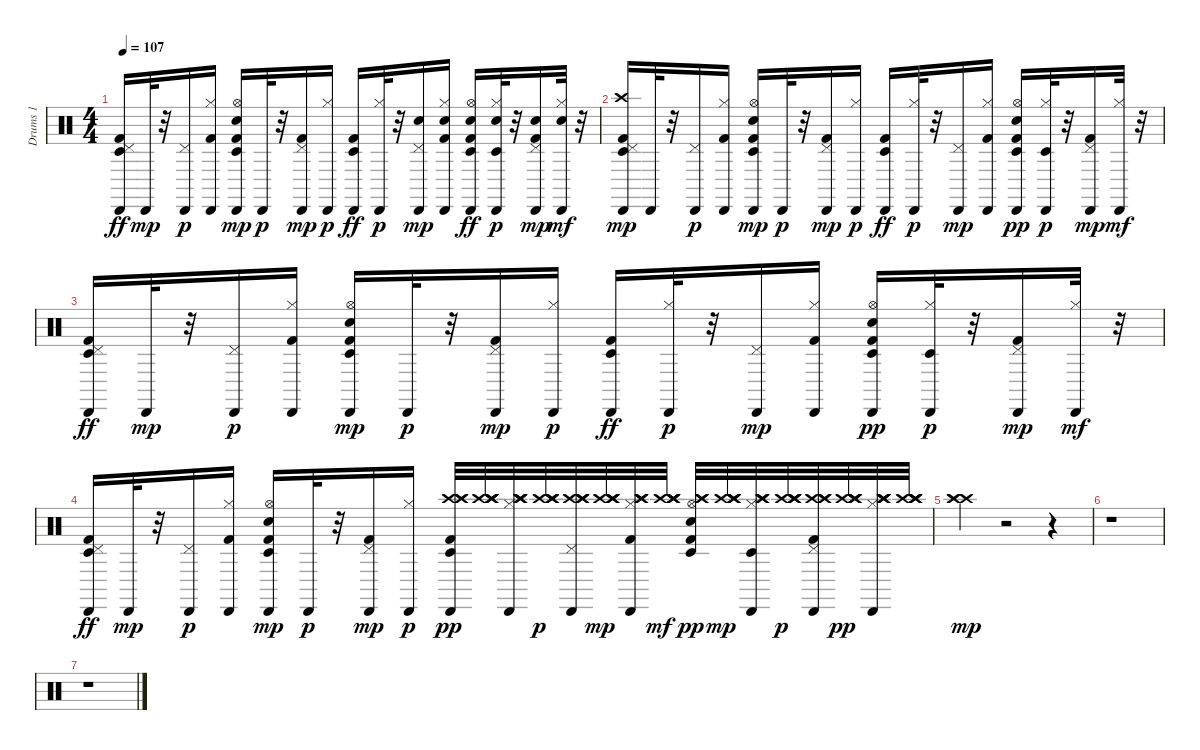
\track ("Drums 1" "Drums 1") {instrument percussion}
\staff {score}
\articulation defaults
\ts (4 4)
\tempo 107
\clef neutral
\ks c
("Timbale low (hit)" "Kick (hit) 2" "Pedal Hi-Hat (hit)" "Cabasa (hit)").16{dy ff} "Cabasa (hit)".32{dy mp} r.32 ("Pedal Hi-Hat (hit)" "Cabasa (hit)").16{dy p} ("Kick (hit) 2" "Hi-Hat (closed)" "Cabasa (hit)").16 ("Timbale low (hit)" "Kick (hit) 2" "Snare (hit) 2" "Hi-Hat (open)" "Cabasa (hit)").16{dy mp} "Cabasa (hit)".32{dy p} r.32 ("Kick (hit) 2" "Pedal Hi-Hat (hit)" "Cabasa (hit)").16{dy mp} ("Hi-Hat (closed)" "Cabasa (hit)").16{dy p} ("Timbale low (hit)" "Kick (hit) 2" "Cabasa (hit)").16{dy ff} ("Hi-Hat (closed)" "Cabasa (hit)").32{dy p} r.32 ("Pedal Hi-Hat (hit)" "Snare (hit) 2" "Cabasa (hit)").16{dy mp} ("Kick (hit) 2" "Hi-Hat (closed)" "Snare (hit) 2" "Cabasa (hit)").16 ("Timbale low (hit)" "Kick (hit) 2" "Hi-Hat (open)" "Snare (hit) 2" "Cabasa (hit)").16{dy ff} ("Timbale low (hit)" "Hi-Hat (closed)" "Snare (hit) 2" "Cabasa (hit)").32{dy p} r.32 ("Kick (hit) 2" "Pedal Hi-Hat (hit)" "Snare (hit) 2" "Cabasa (hit)").16{dy mp} ("Hi-Hat (closed)" "Snare (hit) 2" "Cabasa (hit)").32{dy mf} r.32 |
("Timbale low (hit)" "Kick (hit) 2" "Pedal Hi-Hat (hit)" "Cabasa (hit)" "Crash high (hit)").16{dy mp} "Cabasa (hit)".32 r.32 ("Pedal Hi-Hat (hit)" "Cabasa (hit)").16{dy p} ("Kick (hit) 2" "Hi-Hat (closed)" "Cabasa (hit)").16 ("Timbale low (hit)" "Kick (hit) 2" "Snare (hit) 2" "Hi-Hat (open)" "Cabasa (hit)").16{dy mp} "Cabasa (hit)".32{dy p} r.32 ("Kick (hit) 2" "Pedal Hi-Hat (hit)" "Cabasa (hit)").16{dy mp} ("Hi-Hat (closed)" "Cabasa (hit)").16{dy p} ("Timbale low (hit)" "Kick (hit) 2" "Cabasa (hit)").16{dy ff} ("Hi-Hat (closed)" "Cabasa (hit)").32{dy p} r.32 ("Pedal Hi-Hat (hit)" "Cabasa (hit)").16{dy mp} ("Kick (hit) 2" "Hi-Hat (closed)" "Cabasa (hit)").16 ("Timbale low (hit)" "Kick (hit) 2" "Snare (hit) 2" "Hi-Hat (open)" "Cabasa (hit)").16{dy pp} ("Timbale low (hit)" "Hi-Hat (closed)" "Cabasa (hit)").32{dy p} r.32 ("Kick (hit) 2" "Pedal Hi-Hat (hit)" "Cabasa (hit)").16{dy mp} ("Hi-Hat (closed)" "Cabasa (hit)").32{dy mf} r.32 |
("Timbale low (hit)" "Kick (hit) 2" "Pedal Hi-Hat (hit)" "Cabasa (hit)").16{dy ff} "Cabasa (hit)".32{dy mp} r.32 ("Pedal Hi-Hat (hit)" "Cabasa (hit)").16{dy p} ("Kick (hit) 2" "Hi-Hat (closed)" "Cabasa (hit)").16 ("Timbale low (hit)" "Kick (hit) 2" "Snare (hit) 2" "Hi-Hat (open)" "Cabasa (hit)").16{dy mp} "Cabasa (hit)".32{dy p} r.32 ("Kick (hit) 2" "Pedal Hi-Hat (hit)" "Cabasa (hit)").16{dy mp} ("Hi-Hat (closed)" "Cabasa (hit)").16{dy p} ("Timbale low (hit)" "Kick (hit) 2" "Cabasa (hit)").16{dy ff} ("Hi-Hat (closed)" "Cabasa (hit)").32{dy p} r.32 ("Pedal Hi-Hat (hit)" "Cabasa (hit)").16{dy mp} ("Kick (hit) 2" "Hi-Hat (closed)" "Cabasa (hit)").16 ("Timbale low (hit)" "Kick (hit) 2" "Snare (hit) 2" "Hi-Hat (open)" "Cabasa (hit)").16{dy pp} ("Timbale low (hit)" "Hi-Hat (closed)" "Cabasa (hit)").32{dy p} r.32 ("Kick (hit) 2" "Pedal Hi-Hat (hit)" "Cabasa (hit)").16{dy mp} ("Hi-Hat (closed)" "Cabasa (hit)").32{dy mf} r.32 |
("Timbale low (hit)" "Kick (hit) 2" "Pedal Hi-Hat (hit)" "Cabasa (hit)").16{dy ff} "Cabasa (hit)".32{dy mp} r.32 ("Pedal Hi-Hat (hit)" "Cabasa (hit)").16{dy p} ("Kick (hit) 2" "Hi-Hat (closed)" "Cabasa (hit)").16 ("Timbale low (hit)" "Kick (hit) 2" "Snare (hit) 2" "Hi-Hat (open)" "Cabasa (hit)").16{dy mp} "Cabasa (hit)".32{dy p} r.32 ("Kick (hit) 2" "Pedal Hi-Hat (hit)" "Cabasa (hit)").16{dy mp} ("Hi-Hat (closed)" "Cabasa (hit)").16{dy p} ("Timbale low (hit)" "Kick (hit) 2" "Cabasa (hit)" "Crash high (hit)" "Crash high (hit)" "Crash high (hit)").32{dy pp} ("Crash high (hit)" "Crash high (hit)" "Crash high (hit)" "Crash high (hit)" "Crash high (hit)").32 ("Crash high (hit)" "Crash high (hit)" "Hi-Hat (closed)" "Cabasa (hit)" "Crash high (hit)" "Crash high (hit)").32 ("Crash high (hit)" "Crash high (hit)" "Crash high (hit)" "Crash high (hit)" "Crash high (hit)").32{dy p} ("Crash high (hit)" "Crash high (hit)" "Pedal Hi-Hat (hit)" "Cabasa (hit)" "Crash high (hit)" "Crash high (hit)").32 ("Crash high (hit)" "Crash high (hit)" "Crash high (hit)" "Crash high (hit)" "Crash high (hit)").32{dy mp} ("Crash high (hit)" "Crash high (hit)" "Kick (hit) 2" "Hi-Hat (closed)" "Cabasa (hit)" "Crash high (hit)").32 ("Crash high (hit)" "Crash high (hit)" "Crash high (hit)" "Crash high (hit)" "Crash high (hit)").32{dy mf} ("Crash high (hit)" "Crash high (hit)" "Timbale low (hit)" "Kick (hit) 2" "Snare (hit) 2" "Hi-Hat (open)").32{dy pp} ("Crash high (hit)" "Crash high (hit)" "Crash high (hit)" "Crash high (hit)" "Crash high (hit)").32{dy mp} ("Crash high (hit)" "Crash high (hit)" "Timbale low (hit)" "Hi-Hat (closed)" "Cabasa (hit)" "Crash high (hit)").32 ("Crash high (hit)" "Crash high (hit)" "Crash high (hit)" "Crash high (hit)" "Crash high (hit)").32{dy p} ("Crash high (hit)" "Crash high (hit)" "Kick (hit) 2" "Pedal Hi-Hat (hit)" "Cabasa (hit)" "Crash high (hit)").32 ("Crash high (hit)" "Crash high (hit)" "Crash high (hit)" "Crash high (hit)" "Crash high (hit)").32{dy pp} ("Crash high (hit)" "Crash high (hit)" "Hi-Hat (closed)" "Cabasa (hit)" "Crash high (hit)" "Crash high (hit)").32 ("Crash high (hit)" "Crash high (hit)" "Crash high (hit)" "Crash high (hit)" "Crash high (hit)").32 |
("Crash high (hit)" "Crash high (hit)" "Crash high (hit)").4{dy mp} r.2 r.4 |
r.1 |
r.1
